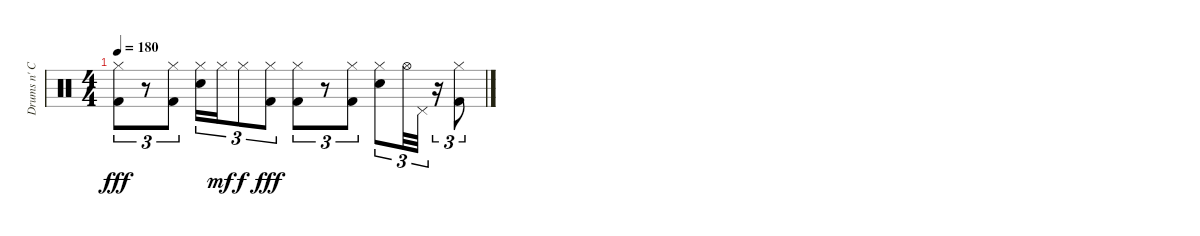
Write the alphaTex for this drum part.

\track ("Drums n' Cymbals" "Drums n' C") {instrument percussion}
\staff {score}
\articulation defaults
\ts (4 4)
\tempo 180
\clef neutral
\ks c
("Hi-Hat (closed)" "Kick (hit) 2").8{tu (3 2) dy fff} r.8{tu (3 2)} ("Hi-Hat (closed)" "Kick (hit) 2").8{tu (3 2)} ("Hi-Hat (closed)" "Electric Snare (hit)").16{tu (3 2)} "Hi-Hat (closed)".16{tu (3 2) dy mf} "Hi-Hat (closed)".8{tu (3 2) dy f} ("Hi-Hat (closed)" "Kick (hit) 2").8{tu (3 2) dy fff} ("Hi-Hat (closed)" "Kick (hit) 2").8{tu (3 2)} r.8{tu (3 2)} ("Hi-Hat (closed)" "Kick (hit) 2").8{tu (3 2)} ("Hi-Hat (closed)" "Electric Snare (hit)").8{tu (3 2)} "Hi-Hat (open)".32{tu (3 2)} "Pedal Hi-Hat (hit)".32{tu (3 2)} r.16{tu (3 2)} ("Hi-Hat (closed)" "Kick (hit) 2").8{tu (3 2)}
